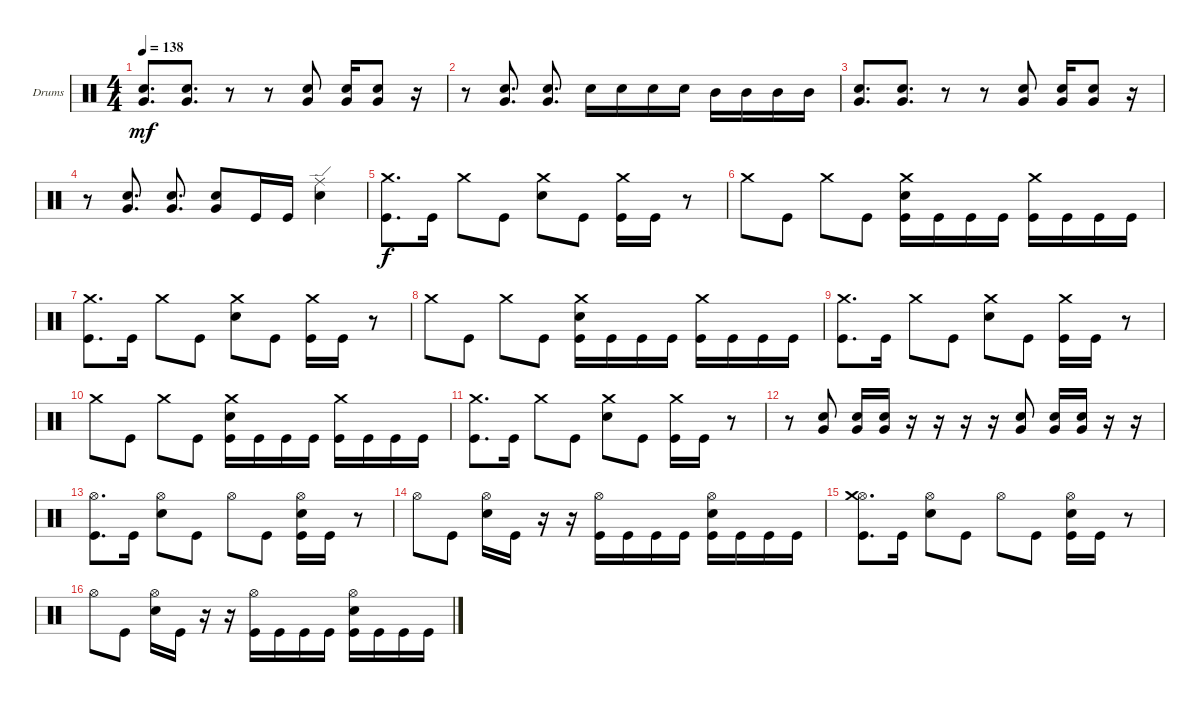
\bracketExtendMode groupsimilarinstruments
\firstSystemTrackNameOrientation horizontal
\otherSystemsTrackNameOrientation horizontal
\track ("Drumkit" "Drums") {instrument percussion}
\staff {score}
\articulation defaults
\ts (4 4)
\section ("" "")
\tempo 138
\clef neutral
\ks c
("Snare (hit) 2" "Very Low Tom (hit)").8{d dy mf} ("Snare (hit) 2" "Very Low Tom (hit)").8{d} r.8 r.8 ("Snare (hit) 2" "Very Low Tom (hit)").8 ("Snare (hit) 2" "Very Low Tom (hit)").16 ("Snare (hit) 2" "Very Low Tom (hit)").8 r.16 |
r.8 ("Snare (hit) 2" "Very Low Tom (hit)").8{d} ("Snare (hit) 2" "Very Low Tom (hit)").8{d} "Snare (hit) 2".16 "Snare (hit) 2".16 "Snare (hit) 2".16 "Snare (hit) 2".16 "Mid Tom (hit)".16 "Mid Tom (hit)".16 "Mid Tom (hit)".16 "Mid Tom (hit)".16 |
("Snare (hit) 2" "Very Low Tom (hit)").8{d} ("Snare (hit) 2" "Very Low Tom (hit)").8{d} r.8 r.8 ("Snare (hit) 2" "Very Low Tom (hit)").8 ("Snare (hit) 2" "Very Low Tom (hit)").16 ("Snare (hit) 2" "Very Low Tom (hit)").8 r.16 |
r.8 ("Snare (hit) 2" "Very Low Tom (hit)").8{d} ("Snare (hit) 2" "Very Low Tom (hit)").8{d} ("Snare (hit) 2" "Very Low Tom (hit)").8 "Kick (hit)".16 "Kick (hit)".16 ("Snare (hit) 2" "Ride (edge)").4 |
("Kick (hit)" "Crash medium (hit)").8{d dy f} "Kick (hit)".16 "Crash medium (hit)".8 "Kick (hit)".8 ("Snare (hit) 2" "Crash medium (hit)").8 "Kick (hit)".8 ("Kick (hit)" "Crash medium (hit)").16 "Kick (hit)".16 r.8 |
"Crash medium (hit)".8 "Kick (hit)".8 "Crash medium (hit)".8 "Kick (hit)".8 ("Snare (hit) 2" "Crash medium (hit)" "Kick (hit)").16 "Kick (hit)".16 "Kick (hit)".16 "Kick (hit)".16 ("Kick (hit)" "Crash medium (hit)").16 "Kick (hit)".16 "Kick (hit)".16 "Kick (hit)".16 |
("Kick (hit)" "Crash medium (hit)").8{d} "Kick (hit)".16 "Crash medium (hit)".8 "Kick (hit)".8 ("Snare (hit) 2" "Crash medium (hit)").8 "Kick (hit)".8 ("Kick (hit)" "Crash medium (hit)").16 "Kick (hit)".16 r.8 |
"Crash medium (hit)".8 "Kick (hit)".8 "Crash medium (hit)".8 "Kick (hit)".8 ("Snare (hit) 2" "Crash medium (hit)" "Kick (hit)").16 "Kick (hit)".16 "Kick (hit)".16 "Kick (hit)".16 ("Kick (hit)" "Crash medium (hit)").16 "Kick (hit)".16 "Kick (hit)".16 "Kick (hit)".16 |
("Kick (hit)" "Crash medium (hit)").8{d} "Kick (hit)".16 "Crash medium (hit)".8 "Kick (hit)".8 ("Snare (hit) 2" "Crash medium (hit)").8 "Kick (hit)".8 ("Kick (hit)" "Crash medium (hit)").16 "Kick (hit)".16 r.8 |
"Crash medium (hit)".8 "Kick (hit)".8 "Crash medium (hit)".8 "Kick (hit)".8 ("Snare (hit) 2" "Crash medium (hit)" "Kick (hit)").16 "Kick (hit)".16 "Kick (hit)".16 "Kick (hit)".16 ("Kick (hit)" "Crash medium (hit)").16 "Kick (hit)".16 "Kick (hit)".16 "Kick (hit)".16 |
("Kick (hit)" "Crash medium (hit)").8{d} "Kick (hit)".16 "Crash medium (hit)".8 "Kick (hit)".8 ("Snare (hit) 2" "Crash medium (hit)").8 "Kick (hit)".8 ("Kick (hit)" "Crash medium (hit)").16 "Kick (hit)".16 r.8 |
r.8 ("Snare (hit) 2" "Very Low Tom (hit)").8 ("Snare (hit) 2" "Very Low Tom (hit)").16 ("Snare (hit) 2" "Very Low Tom (hit)").16 r.16 r.16 r.16 r.16 ("Snare (hit) 2" "Very Low Tom (hit)").8 ("Snare (hit) 2" "Very Low Tom (hit)").16 ("Snare (hit) 2" "Very Low Tom (hit)").16 r.16 r.16 |
("Kick (hit)" "Hi-Hat (open)").8{d} "Kick (hit)".16 ("Snare (hit) 2" "Hi-Hat (open)").8 "Kick (hit)".8 "Hi-Hat (open)".8 "Kick (hit)".8 ("Kick (hit)" "Snare (hit) 2" "Hi-Hat (open)").16 "Kick (hit)".16 r.8 |
"Hi-Hat (open)".8 "Kick (hit)".8 ("Hi-Hat (open)" "Snare (hit) 2").16 "Kick (hit)".16 r.16 r.16 ("Kick (hit)" "Hi-Hat (open)").16 "Kick (hit)".16 "Kick (hit)".16 "Kick (hit)".16 ("Kick (hit)" "Snare (hit) 2" "Hi-Hat (open)").16 "Kick (hit)".16 "Kick (hit)".16 "Kick (hit)".16 |
("Kick (hit)" "Hi-Hat (open)" "Crash medium (hit)").8{d} "Kick (hit)".16 ("Snare (hit) 2" "Hi-Hat (open)").8 "Kick (hit)".8 "Hi-Hat (open)".8 "Kick (hit)".8 ("Kick (hit)" "Snare (hit) 2" "Hi-Hat (open)").16 "Kick (hit)".16 r.8 |
"Hi-Hat (open)".8 "Kick (hit)".8 ("Hi-Hat (open)" "Snare (hit) 2").16 "Kick (hit)".16 r.16 r.16 ("Kick (hit)" "Hi-Hat (open)").16 "Kick (hit)".16 "Kick (hit)".16 "Kick (hit)".16 ("Kick (hit)" "Snare (hit) 2" "Hi-Hat (open)").16 "Kick (hit)".16 "Kick (hit)".16 "Kick (hit)".16
